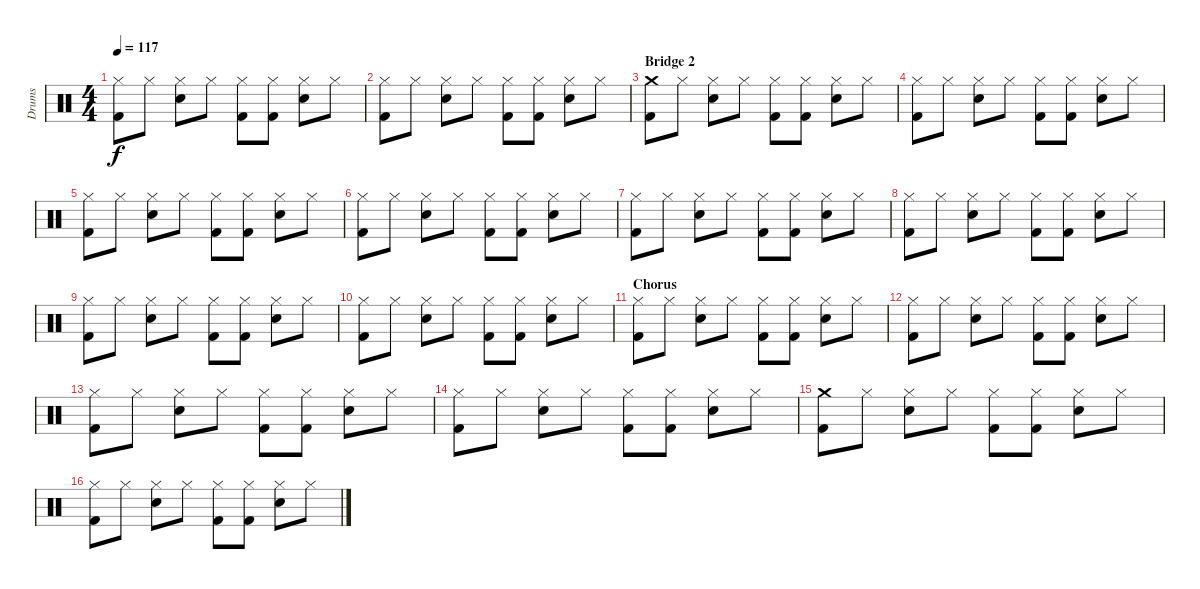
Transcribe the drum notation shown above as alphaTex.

\track ("Drums" "Drums") {instrument percussion}
\staff {score}
\articulation defaults
\ts (4 4)
\tempo 117
\clef neutral
\ks c
("Hi-Hat (closed)" "Kick (hit) 2").8{dy f} "Hi-Hat (closed)".8 ("Hi-Hat (closed)" "Snare (hit) 2").8 "Hi-Hat (closed)".8 ("Hi-Hat (closed)" "Kick (hit) 2").8 ("Hi-Hat (closed)" "Kick (hit) 2").8 ("Hi-Hat (closed)" "Snare (hit) 2").8 "Hi-Hat (closed)".8 |
("Hi-Hat (closed)" "Kick (hit) 2").8 "Hi-Hat (closed)".8 ("Hi-Hat (closed)" "Snare (hit) 2").8 "Hi-Hat (closed)".8 ("Hi-Hat (closed)" "Kick (hit) 2").8 ("Hi-Hat (closed)" "Kick (hit) 2").8 ("Hi-Hat (closed)" "Snare (hit) 2").8 "Hi-Hat (closed)".8 |
\section ("" "Bridge 2")
("Crash medium (hit)" "Kick (hit) 2").8 "Hi-Hat (closed)".8 ("Hi-Hat (closed)" "Snare (hit) 2").8 "Hi-Hat (closed)".8 ("Hi-Hat (closed)" "Kick (hit) 2").8 ("Hi-Hat (closed)" "Kick (hit) 2").8 ("Hi-Hat (closed)" "Snare (hit) 2").8 "Hi-Hat (closed)".8 |
("Hi-Hat (closed)" "Kick (hit) 2").8 "Hi-Hat (closed)".8 ("Hi-Hat (closed)" "Snare (hit) 2").8 "Hi-Hat (closed)".8 ("Hi-Hat (closed)" "Kick (hit) 2").8 ("Hi-Hat (closed)" "Kick (hit) 2").8 ("Hi-Hat (closed)" "Snare (hit) 2").8 "Hi-Hat (closed)".8 |
("Hi-Hat (closed)" "Kick (hit) 2").8 "Hi-Hat (closed)".8 ("Hi-Hat (closed)" "Snare (hit) 2").8 "Hi-Hat (closed)".8 ("Hi-Hat (closed)" "Kick (hit) 2").8 ("Hi-Hat (closed)" "Kick (hit) 2").8 ("Hi-Hat (closed)" "Snare (hit) 2").8 "Hi-Hat (closed)".8 |
("Hi-Hat (closed)" "Kick (hit) 2").8 "Hi-Hat (closed)".8 ("Hi-Hat (closed)" "Snare (hit) 2").8 "Hi-Hat (closed)".8 ("Hi-Hat (closed)" "Kick (hit) 2").8 ("Hi-Hat (closed)" "Kick (hit) 2").8 ("Hi-Hat (closed)" "Snare (hit) 2").8 "Hi-Hat (closed)".8 |
("Hi-Hat (closed)" "Kick (hit) 2").8 "Hi-Hat (closed)".8 ("Hi-Hat (closed)" "Snare (hit) 2").8 "Hi-Hat (closed)".8 ("Hi-Hat (closed)" "Kick (hit) 2").8 ("Hi-Hat (closed)" "Kick (hit) 2").8 ("Hi-Hat (closed)" "Snare (hit) 2").8 "Hi-Hat (closed)".8 |
("Hi-Hat (closed)" "Kick (hit) 2").8 "Hi-Hat (closed)".8 ("Hi-Hat (closed)" "Snare (hit) 2").8 "Hi-Hat (closed)".8 ("Hi-Hat (closed)" "Kick (hit) 2").8 ("Hi-Hat (closed)" "Kick (hit) 2").8 ("Hi-Hat (closed)" "Snare (hit) 2").8 "Hi-Hat (closed)".8 |
("Hi-Hat (closed)" "Kick (hit) 2").8 "Hi-Hat (closed)".8 ("Hi-Hat (closed)" "Snare (hit) 2").8 "Hi-Hat (closed)".8 ("Hi-Hat (closed)" "Kick (hit) 2").8 ("Hi-Hat (closed)" "Kick (hit) 2").8 ("Hi-Hat (closed)" "Snare (hit) 2").8 "Hi-Hat (closed)".8 |
("Hi-Hat (closed)" "Kick (hit) 2").8 "Hi-Hat (closed)".8 ("Hi-Hat (closed)" "Snare (hit) 2").8 "Hi-Hat (closed)".8 ("Hi-Hat (closed)" "Kick (hit) 2").8 ("Hi-Hat (closed)" "Kick (hit) 2").8 ("Hi-Hat (closed)" "Snare (hit) 2").8 "Hi-Hat (closed)".8 |
\section ("" "Chorus")
("Hi-Hat (closed)" "Kick (hit) 2").8 "Hi-Hat (closed)".8 ("Hi-Hat (closed)" "Snare (hit) 2").8 "Hi-Hat (closed)".8 ("Hi-Hat (closed)" "Kick (hit) 2").8 ("Hi-Hat (closed)" "Kick (hit) 2").8 ("Hi-Hat (closed)" "Snare (hit) 2").8 "Hi-Hat (closed)".8 |
("Hi-Hat (closed)" "Kick (hit) 2").8 "Hi-Hat (closed)".8 ("Hi-Hat (closed)" "Snare (hit) 2").8 "Hi-Hat (closed)".8 ("Hi-Hat (closed)" "Kick (hit) 2").8 ("Hi-Hat (closed)" "Kick (hit) 2").8 ("Hi-Hat (closed)" "Snare (hit) 2").8 "Hi-Hat (closed)".8 |
("Hi-Hat (closed)" "Kick (hit) 2").8 "Hi-Hat (closed)".8 ("Hi-Hat (closed)" "Snare (hit) 2").8 "Hi-Hat (closed)".8 ("Hi-Hat (closed)" "Kick (hit) 2").8 ("Hi-Hat (closed)" "Kick (hit) 2").8 ("Hi-Hat (closed)" "Snare (hit) 2").8 "Hi-Hat (closed)".8 |
("Hi-Hat (closed)" "Kick (hit) 2").8 "Hi-Hat (closed)".8 ("Hi-Hat (closed)" "Snare (hit) 2").8 "Hi-Hat (closed)".8 ("Hi-Hat (closed)" "Kick (hit) 2").8 ("Hi-Hat (closed)" "Kick (hit) 2").8 ("Hi-Hat (closed)" "Snare (hit) 2").8 "Hi-Hat (closed)".8 |
("Crash medium (hit)" "Kick (hit) 2").8 "Hi-Hat (closed)".8 ("Hi-Hat (closed)" "Snare (hit) 2").8 "Hi-Hat (closed)".8 ("Hi-Hat (closed)" "Kick (hit) 2").8 ("Hi-Hat (closed)" "Kick (hit) 2").8 ("Hi-Hat (closed)" "Snare (hit) 2").8 "Hi-Hat (closed)".8 |
("Hi-Hat (closed)" "Kick (hit) 2").8 "Hi-Hat (closed)".8 ("Hi-Hat (closed)" "Snare (hit) 2").8 "Hi-Hat (closed)".8 ("Hi-Hat (closed)" "Kick (hit) 2").8 ("Hi-Hat (closed)" "Kick (hit) 2").8 ("Hi-Hat (closed)" "Snare (hit) 2").8 "Hi-Hat (closed)".8
